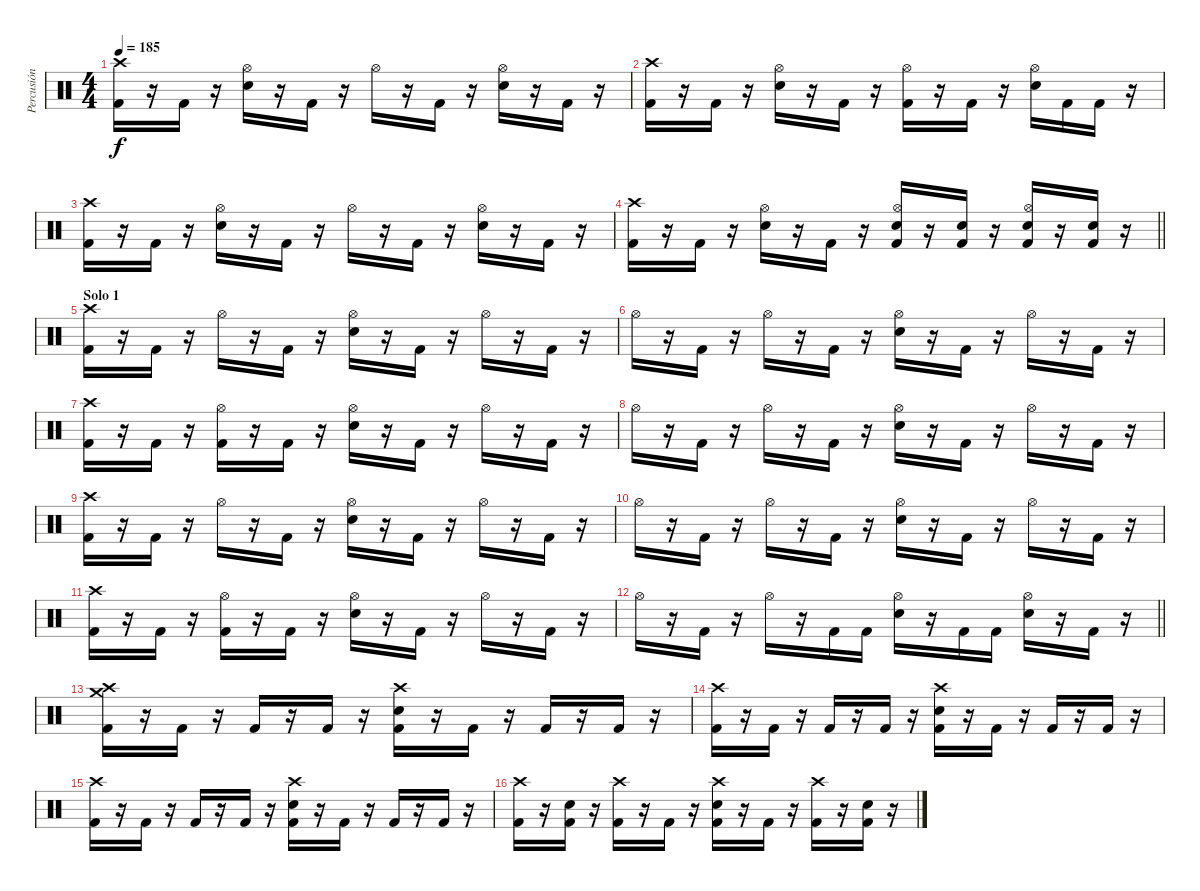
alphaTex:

\track ("Percusión" "Percusión") {instrument percussion}
\staff {score}
\articulation defaults
\ts (4 4)
\tempo 185
\clef neutral
\ks c
("Crash high (hit)" "Kick (hit) 2").16{dy f} r.16 "Kick (hit) 2".16 r.16 ("Hi-Hat (open)" "Electric Snare (hit)").16 r.16 "Kick (hit) 2".16 r.16 "Hi-Hat (open)".16 r.16 "Kick (hit) 2".16 r.16 ("Hi-Hat (open)" "Electric Snare (hit)").16 r.16 "Kick (hit) 2".16 r.16 |
("Crash high (hit)" "Kick (hit) 2").16 r.16 "Kick (hit) 2".16 r.16 ("Hi-Hat (open)" "Electric Snare (hit)").16 r.16 "Kick (hit) 2".16 r.16 ("Hi-Hat (open)" "Kick (hit) 2").16 r.16 "Kick (hit) 2".16 r.16 ("Hi-Hat (open)" "Electric Snare (hit)").16 "Kick (hit) 2".16 "Kick (hit) 2".16 r.16 |
("Crash high (hit)" "Kick (hit) 2").16 r.16 "Kick (hit) 2".16 r.16 ("Hi-Hat (open)" "Electric Snare (hit)").16 r.16 "Kick (hit) 2".16 r.16 "Hi-Hat (open)".16 r.16 "Kick (hit) 2".16 r.16 ("Hi-Hat (open)" "Electric Snare (hit)").16 r.16 "Kick (hit) 2".16 r.16 |
\barLineRight lightlight
("Crash high (hit)" "Kick (hit) 2").16 r.16 "Kick (hit) 2".16 r.16 ("Hi-Hat (open)" "Electric Snare (hit)").16 r.16 "Kick (hit) 2".16 r.16 ("Hi-Hat (open)" "Electric Snare (hit)" "Kick (hit) 2").16 r.16 ("Electric Snare (hit)" "Kick (hit) 2").16 r.16 ("Hi-Hat (open)" "Electric Snare (hit)" "Kick (hit) 2").16 r.16 ("Electric Snare (hit)" "Kick (hit) 2").16 r.16 |
\section ("" "Solo 1")
("Crash high (hit)" "Kick (hit) 2").16 r.16 "Kick (hit) 2".16 r.16 "Hi-Hat (open)".16 r.16 "Kick (hit) 2".16 r.16 ("Hi-Hat (open)" "Electric Snare (hit)").16 r.16 "Kick (hit) 2".16 r.16 "Hi-Hat (open)".16 r.16 "Kick (hit) 2".16 r.16 |
"Hi-Hat (open)".16 r.16 "Kick (hit) 2".16 r.16 "Hi-Hat (open)".16 r.16 "Kick (hit) 2".16 r.16 ("Hi-Hat (open)" "Electric Snare (hit)").16 r.16 "Kick (hit) 2".16 r.16 "Hi-Hat (open)".16 r.16 "Kick (hit) 2".16 r.16 |
("Crash high (hit)" "Kick (hit) 2").16 r.16 "Kick (hit) 2".16 r.16 ("Hi-Hat (open)" "Kick (hit) 2").16 r.16 "Kick (hit) 2".16 r.16 ("Hi-Hat (open)" "Electric Snare (hit)").16 r.16 "Kick (hit) 2".16 r.16 "Hi-Hat (open)".16 r.16 "Kick (hit) 2".16 r.16 |
"Hi-Hat (open)".16 r.16 "Kick (hit) 2".16 r.16 "Hi-Hat (open)".16 r.16 "Kick (hit) 2".16 r.16 ("Hi-Hat (open)" "Electric Snare (hit)").16 r.16 "Kick (hit) 2".16 r.16 "Hi-Hat (open)".16 r.16 "Kick (hit) 2".16 r.16 |
("Crash high (hit)" "Kick (hit) 2").16 r.16 "Kick (hit) 2".16 r.16 "Hi-Hat (open)".16 r.16 "Kick (hit) 2".16 r.16 ("Hi-Hat (open)" "Electric Snare (hit)").16 r.16 "Kick (hit) 2".16 r.16 "Hi-Hat (open)".16 r.16 "Kick (hit) 2".16 r.16 |
"Hi-Hat (open)".16 r.16 "Kick (hit) 2".16 r.16 "Hi-Hat (open)".16 r.16 "Kick (hit) 2".16 r.16 ("Hi-Hat (open)" "Electric Snare (hit)").16 r.16 "Kick (hit) 2".16 r.16 "Hi-Hat (open)".16 r.16 "Kick (hit) 2".16 r.16 |
("Crash high (hit)" "Kick (hit) 2").16 r.16 "Kick (hit) 2".16 r.16 ("Hi-Hat (open)" "Kick (hit) 2").16 r.16 "Kick (hit) 2".16 r.16 ("Hi-Hat (open)" "Electric Snare (hit)").16 r.16 "Kick (hit) 2".16 r.16 "Hi-Hat (open)".16 r.16 "Kick (hit) 2".16 r.16 |
\barLineRight lightlight "Hi-Hat (open)".16
r.16 "Kick (hit) 2".16 r.16 "Hi-Hat (open)".16 r.16 "Kick (hit) 2".16 "Kick (hit) 2".16 ("Hi-Hat (open)" "Electric Snare (hit)").16 r.16 "Kick (hit) 2".16 "Kick (hit) 2".16 ("Hi-Hat (open)" "Electric Snare (hit)").16 r.16 "Kick (hit) 2".16 r.16 |
("Crash high (hit)" "Crash medium (hit)" "Kick (hit) 2").16 r.16 "Kick (hit) 2".16 r.16 "Kick (hit) 2".16 r.16 "Kick (hit) 2".16 r.16 ("Crash high (hit)" "Electric Snare (hit)" "Kick (hit) 2").16 r.16 "Kick (hit) 2".16 r.16 "Kick (hit) 2".16 r.16 "Kick (hit) 2".16 r.16 |
("Crash high (hit)" "Kick (hit) 2").16 r.16 "Kick (hit) 2".16 r.16 "Kick (hit) 2".16 r.16 "Kick (hit) 2".16 r.16 ("Crash high (hit)" "Electric Snare (hit)" "Kick (hit) 2").16 r.16 "Kick (hit) 2".16 r.16 "Kick (hit) 2".16 r.16 "Kick (hit) 2".16 r.16 |
("Crash high (hit)" "Kick (hit) 2").16 r.16 "Kick (hit) 2".16 r.16 "Kick (hit) 2".16 r.16 "Kick (hit) 2".16 r.16 ("Crash high (hit)" "Electric Snare (hit)" "Kick (hit) 2").16 r.16 "Kick (hit) 2".16 r.16 "Kick (hit) 2".16 r.16 "Kick (hit) 2".16 r.16 |
("Crash high (hit)" "Kick (hit) 2").16 r.16 ("Electric Snare (hit)" "Kick (hit) 2").16 r.16 ("Crash high (hit)" "Kick (hit) 2").16 r.16 "Kick (hit) 2".16 r.16 ("Crash high (hit)" "Electric Snare (hit)" "Kick (hit) 2").16 r.16 "Kick (hit) 2".16 r.16 ("Crash high (hit)" "Kick (hit) 2").16 r.16 ("Electric Snare (hit)" "Kick (hit) 2").16 r.16
